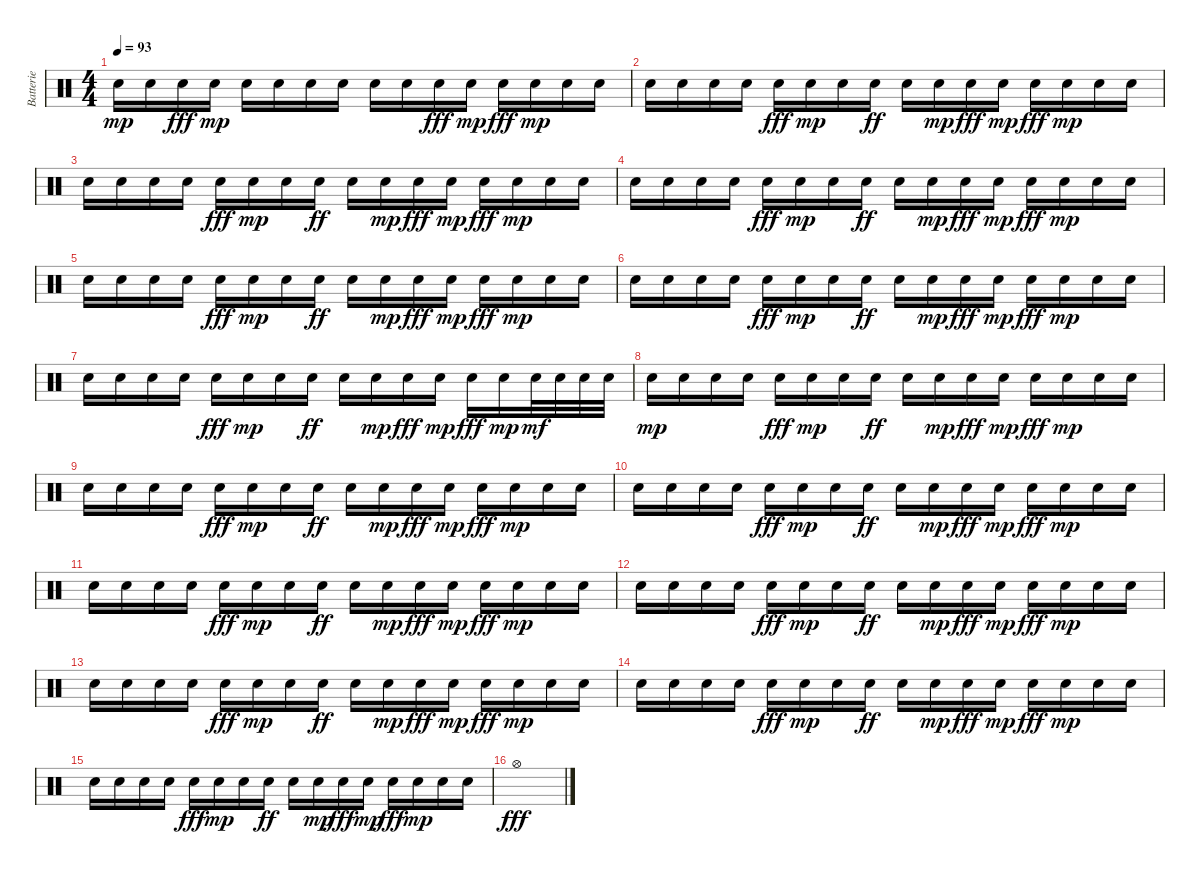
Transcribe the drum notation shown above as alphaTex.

\track ("Batterie" "Batterie") {instrument percussion}
\staff {score}
\articulation defaults
\ts (4 4)
\tempo 93
\clef neutral
\ks c "Snare (hit) 2".16{dy mp} "Snare (hit) 2".16 "Snare (hit) 2".16{dy fff} "Snare (hit) 2".16{dy mp} "Snare (hit) 2".16 "Snare (hit) 2".16 "Snare (hit) 2".16 "Snare (hit) 2".16 "Snare (hit) 2".16 "Snare (hit) 2".16 "Snare (hit) 2".16{dy fff} "Snare (hit) 2".16{dy mp} "Snare (hit) 2".16{dy fff} "Snare (hit) 2".16{dy mp} "Snare (hit) 2".16 "Snare (hit) 2".16
|
"Snare (hit) 2".16 "Snare (hit) 2".16 "Snare (hit) 2".16 "Snare (hit) 2".16 "Snare (hit) 2".16{dy fff} "Snare (hit) 2".16{dy mp} "Snare (hit) 2".16 "Snare (hit) 2".16{dy ff} "Snare (hit) 2".16 "Snare (hit) 2".16{dy mp} "Snare (hit) 2".16{dy fff} "Snare (hit) 2".16{dy mp} "Snare (hit) 2".16{dy fff} "Snare (hit) 2".16{dy mp} "Snare (hit) 2".16 "Snare (hit) 2".16 |
"Snare (hit) 2".16 "Snare (hit) 2".16 "Snare (hit) 2".16 "Snare (hit) 2".16 "Snare (hit) 2".16{dy fff} "Snare (hit) 2".16{dy mp} "Snare (hit) 2".16 "Snare (hit) 2".16{dy ff} "Snare (hit) 2".16 "Snare (hit) 2".16{dy mp} "Snare (hit) 2".16{dy fff} "Snare (hit) 2".16{dy mp} "Snare (hit) 2".16{dy fff} "Snare (hit) 2".16{dy mp} "Snare (hit) 2".16 "Snare (hit) 2".16 |
"Snare (hit) 2".16 "Snare (hit) 2".16 "Snare (hit) 2".16 "Snare (hit) 2".16 "Snare (hit) 2".16{dy fff} "Snare (hit) 2".16{dy mp} "Snare (hit) 2".16 "Snare (hit) 2".16{dy ff} "Snare (hit) 2".16 "Snare (hit) 2".16{dy mp} "Snare (hit) 2".16{dy fff} "Snare (hit) 2".16{dy mp} "Snare (hit) 2".16{dy fff} "Snare (hit) 2".16{dy mp} "Snare (hit) 2".16 "Snare (hit) 2".16 |
"Snare (hit) 2".16 "Snare (hit) 2".16 "Snare (hit) 2".16 "Snare (hit) 2".16 "Snare (hit) 2".16{dy fff} "Snare (hit) 2".16{dy mp} "Snare (hit) 2".16 "Snare (hit) 2".16{dy ff} "Snare (hit) 2".16 "Snare (hit) 2".16{dy mp} "Snare (hit) 2".16{dy fff} "Snare (hit) 2".16{dy mp} "Snare (hit) 2".16{dy fff} "Snare (hit) 2".16{dy mp} "Snare (hit) 2".16 "Snare (hit) 2".16 |
"Snare (hit) 2".16 "Snare (hit) 2".16 "Snare (hit) 2".16 "Snare (hit) 2".16 "Snare (hit) 2".16{dy fff} "Snare (hit) 2".16{dy mp} "Snare (hit) 2".16 "Snare (hit) 2".16{dy ff} "Snare (hit) 2".16 "Snare (hit) 2".16{dy mp} "Snare (hit) 2".16{dy fff} "Snare (hit) 2".16{dy mp} "Snare (hit) 2".16{dy fff} "Snare (hit) 2".16{dy mp} "Snare (hit) 2".16 "Snare (hit) 2".16 |
"Snare (hit) 2".16 "Snare (hit) 2".16 "Snare (hit) 2".16 "Snare (hit) 2".16 "Snare (hit) 2".16{dy fff} "Snare (hit) 2".16{dy mp} "Snare (hit) 2".16 "Snare (hit) 2".16{dy ff} "Snare (hit) 2".16 "Snare (hit) 2".16{dy mp} "Snare (hit) 2".16{dy fff} "Snare (hit) 2".16{dy mp} "Snare (hit) 2".16{dy fff} "Snare (hit) 2".16{dy mp} "Snare (hit) 2".32{dy mf} "Snare (hit) 2".32 "Snare (hit) 2".32 "Snare (hit) 2".32 |
"Snare (hit) 2".16{dy mp} "Snare (hit) 2".16 "Snare (hit) 2".16 "Snare (hit) 2".16 "Snare (hit) 2".16{dy fff} "Snare (hit) 2".16{dy mp} "Snare (hit) 2".16 "Snare (hit) 2".16{dy ff} "Snare (hit) 2".16 "Snare (hit) 2".16{dy mp} "Snare (hit) 2".16{dy fff} "Snare (hit) 2".16{dy mp} "Snare (hit) 2".16{dy fff} "Snare (hit) 2".16{dy mp} "Snare (hit) 2".16 "Snare (hit) 2".16 |
"Snare (hit) 2".16 "Snare (hit) 2".16 "Snare (hit) 2".16 "Snare (hit) 2".16 "Snare (hit) 2".16{dy fff} "Snare (hit) 2".16{dy mp} "Snare (hit) 2".16 "Snare (hit) 2".16{dy ff} "Snare (hit) 2".16 "Snare (hit) 2".16{dy mp} "Snare (hit) 2".16{dy fff} "Snare (hit) 2".16{dy mp} "Snare (hit) 2".16{dy fff} "Snare (hit) 2".16{dy mp} "Snare (hit) 2".16 "Snare (hit) 2".16 |
"Snare (hit) 2".16 "Snare (hit) 2".16 "Snare (hit) 2".16 "Snare (hit) 2".16 "Snare (hit) 2".16{dy fff} "Snare (hit) 2".16{dy mp} "Snare (hit) 2".16 "Snare (hit) 2".16{dy ff} "Snare (hit) 2".16 "Snare (hit) 2".16{dy mp} "Snare (hit) 2".16{dy fff} "Snare (hit) 2".16{dy mp} "Snare (hit) 2".16{dy fff} "Snare (hit) 2".16{dy mp} "Snare (hit) 2".16 "Snare (hit) 2".16 |
"Snare (hit) 2".16 "Snare (hit) 2".16 "Snare (hit) 2".16 "Snare (hit) 2".16 "Snare (hit) 2".16{dy fff} "Snare (hit) 2".16{dy mp} "Snare (hit) 2".16 "Snare (hit) 2".16{dy ff} "Snare (hit) 2".16 "Snare (hit) 2".16{dy mp} "Snare (hit) 2".16{dy fff} "Snare (hit) 2".16{dy mp} "Snare (hit) 2".16{dy fff} "Snare (hit) 2".16{dy mp} "Snare (hit) 2".16 "Snare (hit) 2".16 |
"Snare (hit) 2".16 "Snare (hit) 2".16 "Snare (hit) 2".16 "Snare (hit) 2".16 "Snare (hit) 2".16{dy fff} "Snare (hit) 2".16{dy mp} "Snare (hit) 2".16 "Snare (hit) 2".16{dy ff} "Snare (hit) 2".16 "Snare (hit) 2".16{dy mp} "Snare (hit) 2".16{dy fff} "Snare (hit) 2".16{dy mp} "Snare (hit) 2".16{dy fff} "Snare (hit) 2".16{dy mp} "Snare (hit) 2".16 "Snare (hit) 2".16 |
"Snare (hit) 2".16 "Snare (hit) 2".16 "Snare (hit) 2".16 "Snare (hit) 2".16 "Snare (hit) 2".16{dy fff} "Snare (hit) 2".16{dy mp} "Snare (hit) 2".16 "Snare (hit) 2".16{dy ff} "Snare (hit) 2".16 "Snare (hit) 2".16{dy mp} "Snare (hit) 2".16{dy fff} "Snare (hit) 2".16{dy mp} "Snare (hit) 2".16{dy fff} "Snare (hit) 2".16{dy mp} "Snare (hit) 2".16 "Snare (hit) 2".16 |
"Snare (hit) 2".16 "Snare (hit) 2".16 "Snare (hit) 2".16 "Snare (hit) 2".16 "Snare (hit) 2".16{dy fff} "Snare (hit) 2".16{dy mp} "Snare (hit) 2".16 "Snare (hit) 2".16{dy ff} "Snare (hit) 2".16 "Snare (hit) 2".16{dy mp} "Snare (hit) 2".16{dy fff} "Snare (hit) 2".16{dy mp} "Snare (hit) 2".16{dy fff} "Snare (hit) 2".16{dy mp} "Snare (hit) 2".16 "Snare (hit) 2".16 |
"Snare (hit) 2".16 "Snare (hit) 2".16 "Snare (hit) 2".16 "Snare (hit) 2".16 "Snare (hit) 2".16{dy fff} "Snare (hit) 2".16{dy mp} "Snare (hit) 2".16 "Snare (hit) 2".16{dy ff} "Snare (hit) 2".16 "Snare (hit) 2".16{dy mp} "Snare (hit) 2".16{dy fff} "Snare (hit) 2".16{dy mp} "Snare (hit) 2".16{dy fff} "Snare (hit) 2".16{dy mp} "Snare (hit) 2".16 "Snare (hit) 2".16 |
"Hi-Hat (open)".1{dy fff}
